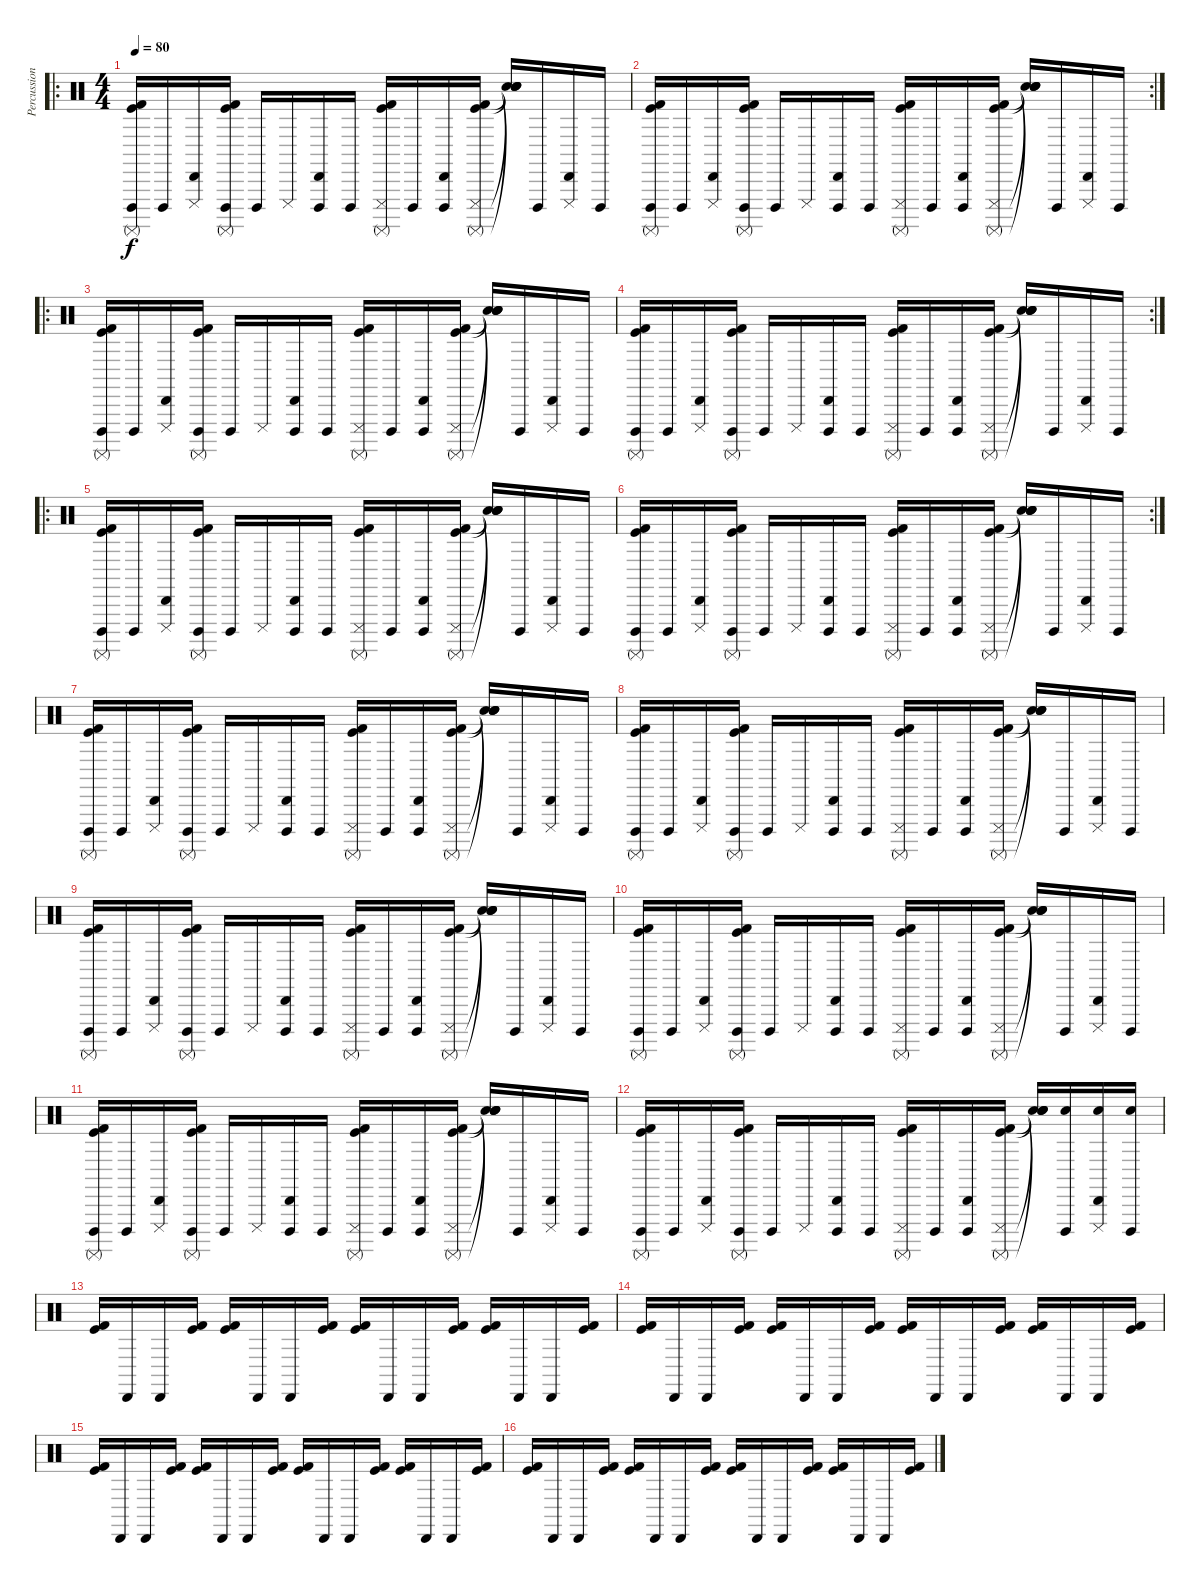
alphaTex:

\track ("Percussions" "Percussion") {instrument percussion}
\staff {score}
\articulation defaults
\ro
\ts (4 4)
\tempo 80
\clef neutral
\ks c
("Cuica (open)" "Kick (hit) 2" "Kick (hit)" "Surdo (mute)").16{dy f} "Cuica (open)".16 ("Cuica (mute)" "Cabasa (hit)").16 ("Cuica (open)" "Kick (hit) 2" "Kick (hit)" "Surdo (mute)").16 "Cuica (open)".16 "Cuica (mute)".16 ("Cuica (open)" "Cabasa (hit)").16 "Cuica (open)".16 ("Cuica (mute)" "Kick (hit) 2" "Kick (hit)" "Surdo (mute)").16 "Cuica (open)".16 ("Cuica (open)" "Cabasa (hit)").16 ("Cuica (mute)" "Kick (hit) 2" "Kick (hit)" "Surdo (mute)").16 ("Snare (hit)"{t} "Snare (hit)"{t} "Snare (hit)"{t} "Snare (hit)"{t}).16 "Cuica (open)".16 ("Cuica (mute)" "Cabasa (hit)").16 "Cuica (open)".16 |
\rc 2
("Cuica (open)" "Kick (hit) 2" "Kick (hit)" "Surdo (mute)").16 "Cuica (open)".16 ("Cuica (mute)" "Cabasa (hit)").16 ("Cuica (open)" "Kick (hit) 2" "Kick (hit)" "Surdo (mute)").16 "Cuica (open)".16 "Cuica (mute)".16 ("Cuica (open)" "Cabasa (hit)").16 "Cuica (open)".16 ("Cuica (mute)" "Kick (hit) 2" "Kick (hit)" "Surdo (mute)").16 "Cuica (open)".16 ("Cuica (open)" "Cabasa (hit)").16 ("Cuica (mute)" "Kick (hit) 2" "Kick (hit)" "Surdo (mute)").16 ("Snare (hit)"{t} "Snare (hit)"{t} "Snare (hit)"{t} "Snare (hit)"{t}).16 "Cuica (open)".16 ("Cuica (mute)" "Cabasa (hit)").16 "Cuica (open)".16 |
\ro
("Cuica (open)" "Kick (hit) 2" "Kick (hit)" "Surdo (mute)").16 "Cuica (open)".16 ("Cuica (mute)" "Cabasa (hit)").16 ("Cuica (open)" "Kick (hit) 2" "Kick (hit)" "Surdo (mute)").16 "Cuica (open)".16 "Cuica (mute)".16 ("Cuica (open)" "Cabasa (hit)").16 "Cuica (open)".16 ("Cuica (mute)" "Kick (hit) 2" "Kick (hit)" "Surdo (mute)").16 "Cuica (open)".16 ("Cuica (open)" "Cabasa (hit)").16 ("Cuica (mute)" "Kick (hit) 2" "Kick (hit)" "Surdo (mute)").16 ("Snare (hit)"{t} "Snare (hit)"{t} "Snare (hit)"{t} "Snare (hit)"{t}).16 "Cuica (open)".16 ("Cuica (mute)" "Cabasa (hit)").16 "Cuica (open)".16 |
\rc 2
("Cuica (open)" "Kick (hit) 2" "Kick (hit)" "Surdo (mute)").16 "Cuica (open)".16 ("Cuica (mute)" "Cabasa (hit)").16 ("Cuica (open)" "Kick (hit) 2" "Kick (hit)" "Surdo (mute)").16 "Cuica (open)".16 "Cuica (mute)".16 ("Cuica (open)" "Cabasa (hit)").16 "Cuica (open)".16 ("Cuica (mute)" "Kick (hit) 2" "Kick (hit)" "Surdo (mute)").16 "Cuica (open)".16 ("Cuica (open)" "Cabasa (hit)").16 ("Cuica (mute)" "Kick (hit) 2" "Kick (hit)" "Surdo (mute)").16 ("Snare (hit)"{t} "Snare (hit)"{t} "Snare (hit)"{t} "Snare (hit)"{t}).16 "Cuica (open)".16 ("Cuica (mute)" "Cabasa (hit)").16 "Cuica (open)".16 |
\ro
("Cuica (open)" "Kick (hit) 2" "Kick (hit)" "Surdo (mute)").16 "Cuica (open)".16 ("Cuica (mute)" "Cabasa (hit)").16 ("Cuica (open)" "Kick (hit) 2" "Kick (hit)" "Surdo (mute)").16 "Cuica (open)".16 "Cuica (mute)".16 ("Cuica (open)" "Cabasa (hit)").16 "Cuica (open)".16 ("Cuica (mute)" "Kick (hit) 2" "Kick (hit)" "Surdo (mute)").16 "Cuica (open)".16 ("Cuica (open)" "Cabasa (hit)").16 ("Cuica (mute)" "Kick (hit) 2" "Kick (hit)" "Surdo (mute)").16 ("Snare (hit)"{t} "Snare (hit)"{t} "Snare (hit)"{t} "Snare (hit)"{t}).16 "Cuica (open)".16 ("Cuica (mute)" "Cabasa (hit)").16 "Cuica (open)".16 |
\rc 2
("Cuica (open)" "Kick (hit) 2" "Kick (hit)" "Surdo (mute)").16 "Cuica (open)".16 ("Cuica (mute)" "Cabasa (hit)").16 ("Cuica (open)" "Kick (hit) 2" "Kick (hit)" "Surdo (mute)").16 "Cuica (open)".16 "Cuica (mute)".16 ("Cuica (open)" "Cabasa (hit)").16 "Cuica (open)".16 ("Cuica (mute)" "Kick (hit) 2" "Kick (hit)" "Surdo (mute)").16 "Cuica (open)".16 ("Cuica (open)" "Cabasa (hit)").16 ("Cuica (mute)" "Kick (hit) 2" "Kick (hit)" "Surdo (mute)").16 ("Snare (hit)"{t} "Snare (hit)"{t} "Snare (hit)"{t} "Snare (hit)"{t}).16 "Cuica (open)".16 ("Cuica (mute)" "Cabasa (hit)").16 "Cuica (open)".16 |
("Cuica (open)" "Kick (hit) 2" "Kick (hit)" "Surdo (mute)").16 "Cuica (open)".16 ("Cuica (mute)" "Cabasa (hit)").16 ("Cuica (open)" "Kick (hit) 2" "Kick (hit)" "Surdo (mute)").16 "Cuica (open)".16 "Cuica (mute)".16 ("Cuica (open)" "Cabasa (hit)").16 "Cuica (open)".16 ("Cuica (mute)" "Kick (hit) 2" "Kick (hit)" "Surdo (mute)").16 "Cuica (open)".16 ("Cuica (open)" "Cabasa (hit)").16 ("Cuica (mute)" "Kick (hit) 2" "Kick (hit)" "Surdo (mute)").16 ("Snare (hit)"{t} "Snare (hit)"{t} "Snare (hit)"{t} "Snare (hit)"{t}).16 "Cuica (open)".16 ("Cuica (mute)" "Cabasa (hit)").16 "Cuica (open)".16 |
("Cuica (open)" "Kick (hit) 2" "Kick (hit)" "Surdo (mute)").16 "Cuica (open)".16 ("Cuica (mute)" "Cabasa (hit)").16 ("Cuica (open)" "Kick (hit) 2" "Kick (hit)" "Surdo (mute)").16 "Cuica (open)".16 "Cuica (mute)".16 ("Cuica (open)" "Cabasa (hit)").16 "Cuica (open)".16 ("Cuica (mute)" "Kick (hit) 2" "Kick (hit)" "Surdo (mute)").16 "Cuica (open)".16 ("Cuica (open)" "Cabasa (hit)").16 ("Cuica (mute)" "Kick (hit) 2" "Kick (hit)" "Surdo (mute)").16 ("Snare (hit)"{t} "Snare (hit)"{t} "Snare (hit)"{t} "Snare (hit)"{t}).16 "Cuica (open)".16 ("Cuica (mute)" "Cabasa (hit)").16 "Cuica (open)".16 |
("Cuica (open)" "Kick (hit) 2" "Kick (hit)" "Surdo (mute)").16 "Cuica (open)".16 ("Cuica (mute)" "Cabasa (hit)").16 ("Cuica (open)" "Kick (hit) 2" "Kick (hit)" "Surdo (mute)").16 "Cuica (open)".16 "Cuica (mute)".16 ("Cuica (open)" "Cabasa (hit)").16 "Cuica (open)".16 ("Cuica (mute)" "Kick (hit) 2" "Kick (hit)" "Surdo (mute)").16 "Cuica (open)".16 ("Cuica (open)" "Cabasa (hit)").16 ("Cuica (mute)" "Kick (hit) 2" "Kick (hit)" "Surdo (mute)").16 ("Snare (hit)"{t} "Snare (hit)"{t} "Snare (hit)"{t} "Snare (hit)"{t}).16 "Cuica (open)".16 ("Cuica (mute)" "Cabasa (hit)").16 "Cuica (open)".16 |
("Cuica (open)" "Kick (hit) 2" "Kick (hit)" "Surdo (mute)").16 "Cuica (open)".16 ("Cuica (mute)" "Cabasa (hit)").16 ("Cuica (open)" "Kick (hit) 2" "Kick (hit)" "Surdo (mute)").16 "Cuica (open)".16 "Cuica (mute)".16 ("Cuica (open)" "Cabasa (hit)").16 "Cuica (open)".16 ("Cuica (mute)" "Kick (hit) 2" "Kick (hit)" "Surdo (mute)").16 "Cuica (open)".16 ("Cuica (open)" "Cabasa (hit)").16 ("Cuica (mute)" "Kick (hit) 2" "Kick (hit)" "Surdo (mute)").16 ("Snare (hit)"{t} "Snare (hit)"{t} "Snare (hit)"{t} "Snare (hit)"{t}).16 "Cuica (open)".16 ("Cuica (mute)" "Cabasa (hit)").16 "Cuica (open)".16 |
("Cuica (open)" "Kick (hit) 2" "Kick (hit)" "Surdo (mute)").16 "Cuica (open)".16 ("Cuica (mute)" "Cabasa (hit)").16 ("Cuica (open)" "Kick (hit) 2" "Kick (hit)" "Surdo (mute)").16 "Cuica (open)".16 "Cuica (mute)".16 ("Cuica (open)" "Cabasa (hit)").16 "Cuica (open)".16 ("Cuica (mute)" "Kick (hit) 2" "Kick (hit)" "Surdo (mute)").16 "Cuica (open)".16 ("Cuica (open)" "Cabasa (hit)").16 ("Cuica (mute)" "Kick (hit) 2" "Kick (hit)" "Surdo (mute)").16 ("Snare (hit)"{t} "Snare (hit)"{t} "Snare (hit)"{t} "Snare (hit)"{t}).16 "Cuica (open)".16 ("Cuica (mute)" "Cabasa (hit)").16 "Cuica (open)".16 |
("Cuica (open)" "Kick (hit) 2" "Kick (hit)" "Surdo (mute)").16 "Cuica (open)".16 ("Cuica (mute)" "Cabasa (hit)").16 ("Cuica (open)" "Kick (hit) 2" "Kick (hit)" "Surdo (mute)").16 "Cuica (open)".16 "Cuica (mute)".16 ("Cuica (open)" "Cabasa (hit)").16 "Cuica (open)".16 ("Cuica (mute)" "Kick (hit) 2" "Kick (hit)" "Surdo (mute)").16 "Cuica (open)".16 ("Cuica (open)" "Cabasa (hit)").16 ("Cuica (mute)" "Kick (hit) 2" "Kick (hit)" "Surdo (mute)").16 ("Snare (hit)"{t} "Snare (hit)"{t} "Snare (hit)"{t} "Snare (hit)"{t}).16 ("Cuica (open)" "Snare (hit) 2").16 ("Cuica (mute)" "Cabasa (hit)" "Snare (hit) 2").16 ("Cuica (open)" "Snare (hit) 2").16 |
("Kick (hit) 2" "Kick (hit)").16 "Cabasa (hit)".16 "Cabasa (hit)".16 ("Kick (hit) 2" "Kick (hit)").16 ("Kick (hit) 2" "Kick (hit)").16 "Cabasa (hit)".16 "Cabasa (hit)".16 ("Kick (hit) 2" "Kick (hit)").16 ("Kick (hit) 2" "Kick (hit)").16 "Cabasa (hit)".16 "Cabasa (hit)".16 ("Kick (hit) 2" "Kick (hit)").16 ("Kick (hit) 2" "Kick (hit)").16 "Cabasa (hit)".16 "Cabasa (hit)".16 ("Kick (hit) 2" "Kick (hit)").16 |
("Kick (hit) 2" "Kick (hit)").16 "Cabasa (hit)".16 "Cabasa (hit)".16 ("Kick (hit) 2" "Kick (hit)").16 ("Kick (hit) 2" "Kick (hit)").16 "Cabasa (hit)".16 "Cabasa (hit)".16 ("Kick (hit) 2" "Kick (hit)").16 ("Kick (hit) 2" "Kick (hit)").16 "Cabasa (hit)".16 "Cabasa (hit)".16 ("Kick (hit) 2" "Kick (hit)").16 ("Kick (hit) 2" "Kick (hit)").16 "Cabasa (hit)".16 "Cabasa (hit)".16 ("Kick (hit) 2" "Kick (hit)").16 |
("Kick (hit) 2" "Kick (hit)").16 "Cabasa (hit)".16 "Cabasa (hit)".16 ("Kick (hit) 2" "Kick (hit)").16 ("Kick (hit) 2" "Kick (hit)").16 "Cabasa (hit)".16 "Cabasa (hit)".16 ("Kick (hit) 2" "Kick (hit)").16 ("Kick (hit) 2" "Kick (hit)").16 "Cabasa (hit)".16 "Cabasa (hit)".16 ("Kick (hit) 2" "Kick (hit)").16 ("Kick (hit) 2" "Kick (hit)").16 "Cabasa (hit)".16 "Cabasa (hit)".16 ("Kick (hit) 2" "Kick (hit)").16 |
("Kick (hit) 2" "Kick (hit)").16 "Cabasa (hit)".16 "Cabasa (hit)".16 ("Kick (hit) 2" "Kick (hit)").16 ("Kick (hit) 2" "Kick (hit)").16 "Cabasa (hit)".16 "Cabasa (hit)".16 ("Kick (hit) 2" "Kick (hit)").16 ("Kick (hit) 2" "Kick (hit)").16 "Cabasa (hit)".16 "Cabasa (hit)".16 ("Kick (hit) 2" "Kick (hit)").16 ("Kick (hit) 2" "Kick (hit)").16 "Cabasa (hit)".16 "Cabasa (hit)".16 ("Kick (hit) 2" "Kick (hit)").16
